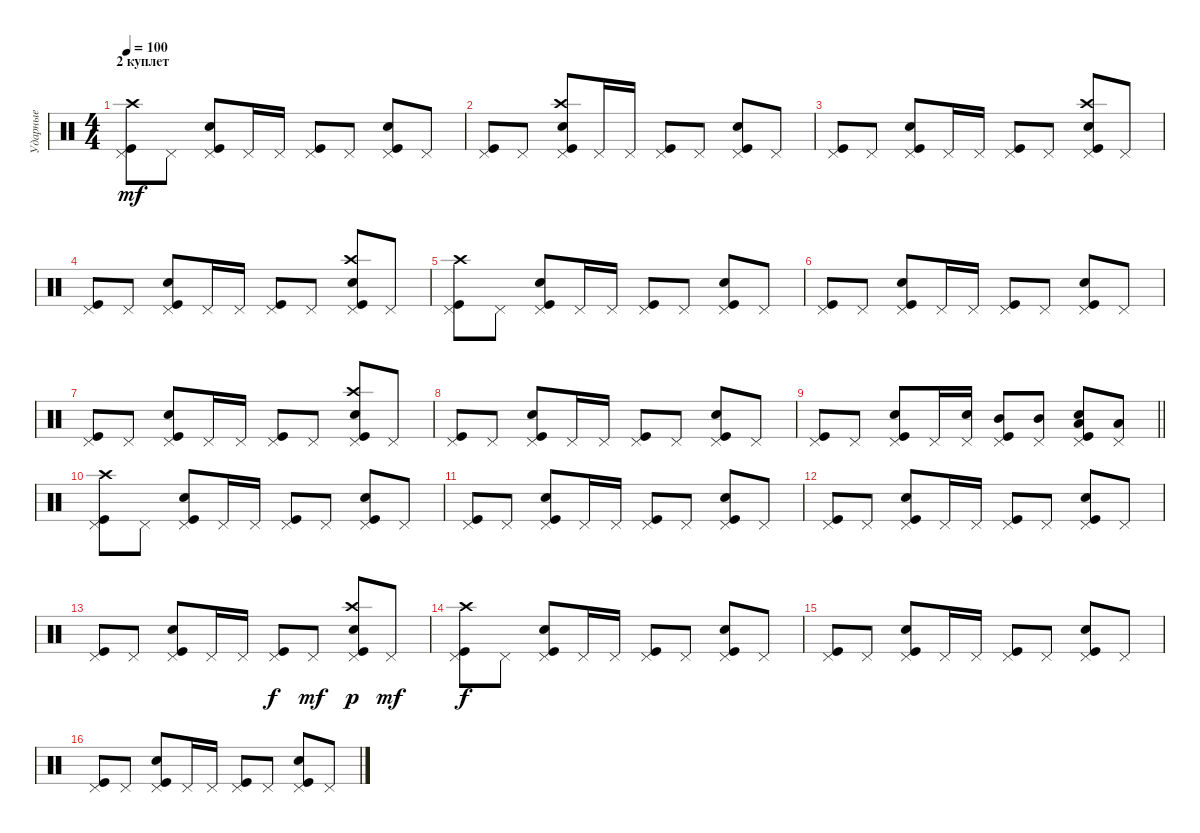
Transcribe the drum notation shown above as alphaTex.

\track ("Ударные" "Ударные") {instrument percussion}
\staff {score}
\articulation defaults
\ts (4 4)
\section ("" "2 куплет")
\tempo 100
\clef neutral
\ks c
("Pedal Hi-Hat (hit)" "Kick (hit)" "Crash high (hit)").8{dy mf} "Pedal Hi-Hat (hit)".8 ("Pedal Hi-Hat (hit)" "Kick (hit)" "Snare (hit) 2").8 "Pedal Hi-Hat (hit)".16 "Pedal Hi-Hat (hit)".16 ("Pedal Hi-Hat (hit)" "Kick (hit)").8 "Pedal Hi-Hat (hit)".8 ("Pedal Hi-Hat (hit)" "Kick (hit)" "Snare (hit) 2").8 "Pedal Hi-Hat (hit)".8 |
("Pedal Hi-Hat (hit)" "Kick (hit)").8 "Pedal Hi-Hat (hit)".8 ("Pedal Hi-Hat (hit)" "Kick (hit)" "Snare (hit) 2" "Crash high (hit)").8 "Pedal Hi-Hat (hit)".16 "Pedal Hi-Hat (hit)".16 ("Pedal Hi-Hat (hit)" "Kick (hit)").8 "Pedal Hi-Hat (hit)".8 ("Pedal Hi-Hat (hit)" "Kick (hit)" "Snare (hit) 2").8 "Pedal Hi-Hat (hit)".8 |
("Pedal Hi-Hat (hit)" "Kick (hit)").8 "Pedal Hi-Hat (hit)".8 ("Pedal Hi-Hat (hit)" "Kick (hit)" "Snare (hit) 2").8 "Pedal Hi-Hat (hit)".16 "Pedal Hi-Hat (hit)".16 ("Pedal Hi-Hat (hit)" "Kick (hit)").8 "Pedal Hi-Hat (hit)".8 ("Pedal Hi-Hat (hit)" "Snare (hit) 2" "Kick (hit)" "Crash high (hit)").8 "Pedal Hi-Hat (hit)".8 |
("Pedal Hi-Hat (hit)" "Kick (hit)").8 "Pedal Hi-Hat (hit)".8 ("Pedal Hi-Hat (hit)" "Kick (hit)" "Snare (hit) 2").8 "Pedal Hi-Hat (hit)".16 "Pedal Hi-Hat (hit)".16 ("Pedal Hi-Hat (hit)" "Kick (hit)").8 "Pedal Hi-Hat (hit)".8 ("Pedal Hi-Hat (hit)" "Kick (hit)" "Snare (hit) 2" "Crash high (hit)").8 "Pedal Hi-Hat (hit)".8 |
("Pedal Hi-Hat (hit)" "Kick (hit)" "Crash high (hit)").8 "Pedal Hi-Hat (hit)".8 ("Pedal Hi-Hat (hit)" "Kick (hit)" "Snare (hit) 2").8 "Pedal Hi-Hat (hit)".16 "Pedal Hi-Hat (hit)".16 ("Pedal Hi-Hat (hit)" "Kick (hit)").8 "Pedal Hi-Hat (hit)".8 ("Pedal Hi-Hat (hit)" "Kick (hit)" "Snare (hit) 2").8 "Pedal Hi-Hat (hit)".8 |
("Pedal Hi-Hat (hit)" "Kick (hit)").8 "Pedal Hi-Hat (hit)".8 ("Pedal Hi-Hat (hit)" "Snare (hit) 2" "Kick (hit)").8 "Pedal Hi-Hat (hit)".16 "Pedal Hi-Hat (hit)".16 ("Pedal Hi-Hat (hit)" "Kick (hit)").8 "Pedal Hi-Hat (hit)".8 ("Pedal Hi-Hat (hit)" "Snare (hit) 2" "Kick (hit)").8 "Pedal Hi-Hat (hit)".8 |
("Pedal Hi-Hat (hit)" "Kick (hit)").8 "Pedal Hi-Hat (hit)".8 ("Pedal Hi-Hat (hit)" "Kick (hit)" "Snare (hit) 2").8 "Pedal Hi-Hat (hit)".16 "Pedal Hi-Hat (hit)".16 ("Pedal Hi-Hat (hit)" "Kick (hit)").8 "Pedal Hi-Hat (hit)".8 ("Pedal Hi-Hat (hit)" "Kick (hit)" "Snare (hit) 2" "Crash high (hit)").8 "Pedal Hi-Hat (hit)".8 |
("Pedal Hi-Hat (hit)" "Kick (hit)").8 "Pedal Hi-Hat (hit)".8 ("Pedal Hi-Hat (hit)" "Kick (hit)" "Snare (hit) 2").8 "Pedal Hi-Hat (hit)".16 "Pedal Hi-Hat (hit)".16 ("Pedal Hi-Hat (hit)" "Kick (hit)").8 "Pedal Hi-Hat (hit)".8 ("Pedal Hi-Hat (hit)" "Kick (hit)" "Snare (hit) 2").8 "Pedal Hi-Hat (hit)".8 |
\barLineRight lightlight
("Pedal Hi-Hat (hit)" "Kick (hit)").8 "Pedal Hi-Hat (hit)".8 ("Pedal Hi-Hat (hit)" "Kick (hit)" "Snare (hit) 2").8 "Pedal Hi-Hat (hit)".16 ("Pedal Hi-Hat (hit)" "Snare (hit) 2").16 ("Pedal Hi-Hat (hit)" "Kick (hit)" "Mid Tom (hit)").8 ("Pedal Hi-Hat (hit)" "Mid Tom (hit)").8 ("Pedal Hi-Hat (hit)" "Kick (hit)" "Snare (hit) 2" "Low Tom (hit)").8 ("Pedal Hi-Hat (hit)" "Low Tom (hit)").8 |
\section ("" "")
("Pedal Hi-Hat (hit)" "Kick (hit)" "Crash high (hit)").8 "Pedal Hi-Hat (hit)".8 ("Pedal Hi-Hat (hit)" "Kick (hit)" "Snare (hit) 2").8 "Pedal Hi-Hat (hit)".16 "Pedal Hi-Hat (hit)".16 ("Pedal Hi-Hat (hit)" "Kick (hit)").8 "Pedal Hi-Hat (hit)".8 ("Pedal Hi-Hat (hit)" "Kick (hit)" "Snare (hit) 2").8 "Pedal Hi-Hat (hit)".8 |
("Pedal Hi-Hat (hit)" "Kick (hit)").8 "Pedal Hi-Hat (hit)".8 ("Pedal Hi-Hat (hit)" "Snare (hit) 2" "Kick (hit)").8 "Pedal Hi-Hat (hit)".16 "Pedal Hi-Hat (hit)".16 ("Pedal Hi-Hat (hit)" "Kick (hit)").8 "Pedal Hi-Hat (hit)".8 ("Pedal Hi-Hat (hit)" "Kick (hit)" "Snare (hit) 2").8 "Pedal Hi-Hat (hit)".8 |
("Pedal Hi-Hat (hit)" "Kick (hit)").8 "Pedal Hi-Hat (hit)".8 ("Pedal Hi-Hat (hit)" "Kick (hit)" "Snare (hit) 2").8 "Pedal Hi-Hat (hit)".16 "Pedal Hi-Hat (hit)".16 ("Pedal Hi-Hat (hit)" "Kick (hit)").8 "Pedal Hi-Hat (hit)".8 ("Pedal Hi-Hat (hit)" "Kick (hit)" "Snare (hit) 2").8 "Pedal Hi-Hat (hit)".8 |
("Pedal Hi-Hat (hit)" "Kick (hit)").8 "Pedal Hi-Hat (hit)".8 ("Pedal Hi-Hat (hit)" "Kick (hit)" "Snare (hit) 2").8 "Pedal Hi-Hat (hit)".16 "Pedal Hi-Hat (hit)".16 ("Pedal Hi-Hat (hit)" "Kick (hit)").8{dy f} "Pedal Hi-Hat (hit)".8{dy mf} ("Pedal Hi-Hat (hit)" "Kick (hit)" "Snare (hit) 2" "Crash high (hit)").8{dy p} "Pedal Hi-Hat (hit)".8{dy mf} |
("Pedal Hi-Hat (hit)" "Kick (hit)" "Crash high (hit)").8{dy f} "Pedal Hi-Hat (hit)".8 ("Pedal Hi-Hat (hit)" "Kick (hit)" "Snare (hit) 2").8 "Pedal Hi-Hat (hit)".16 "Pedal Hi-Hat (hit)".16 ("Pedal Hi-Hat (hit)" "Kick (hit)").8 "Pedal Hi-Hat (hit)".8 ("Pedal Hi-Hat (hit)" "Kick (hit)" "Snare (hit) 2").8 "Pedal Hi-Hat (hit)".8 |
("Pedal Hi-Hat (hit)" "Kick (hit)").8 "Pedal Hi-Hat (hit)".8 ("Pedal Hi-Hat (hit)" "Kick (hit)" "Snare (hit) 2").8 "Pedal Hi-Hat (hit)".16 "Pedal Hi-Hat (hit)".16 ("Pedal Hi-Hat (hit)" "Kick (hit)").8 "Pedal Hi-Hat (hit)".8 ("Pedal Hi-Hat (hit)" "Kick (hit)" "Snare (hit) 2").8 "Pedal Hi-Hat (hit)".8 |
("Pedal Hi-Hat (hit)" "Kick (hit)").8 "Pedal Hi-Hat (hit)".8 ("Pedal Hi-Hat (hit)" "Kick (hit)" "Snare (hit) 2").8 "Pedal Hi-Hat (hit)".16 "Pedal Hi-Hat (hit)".16 ("Pedal Hi-Hat (hit)" "Kick (hit)").8 "Pedal Hi-Hat (hit)".8 ("Pedal Hi-Hat (hit)" "Kick (hit)" "Snare (hit) 2").8 "Pedal Hi-Hat (hit)".8
